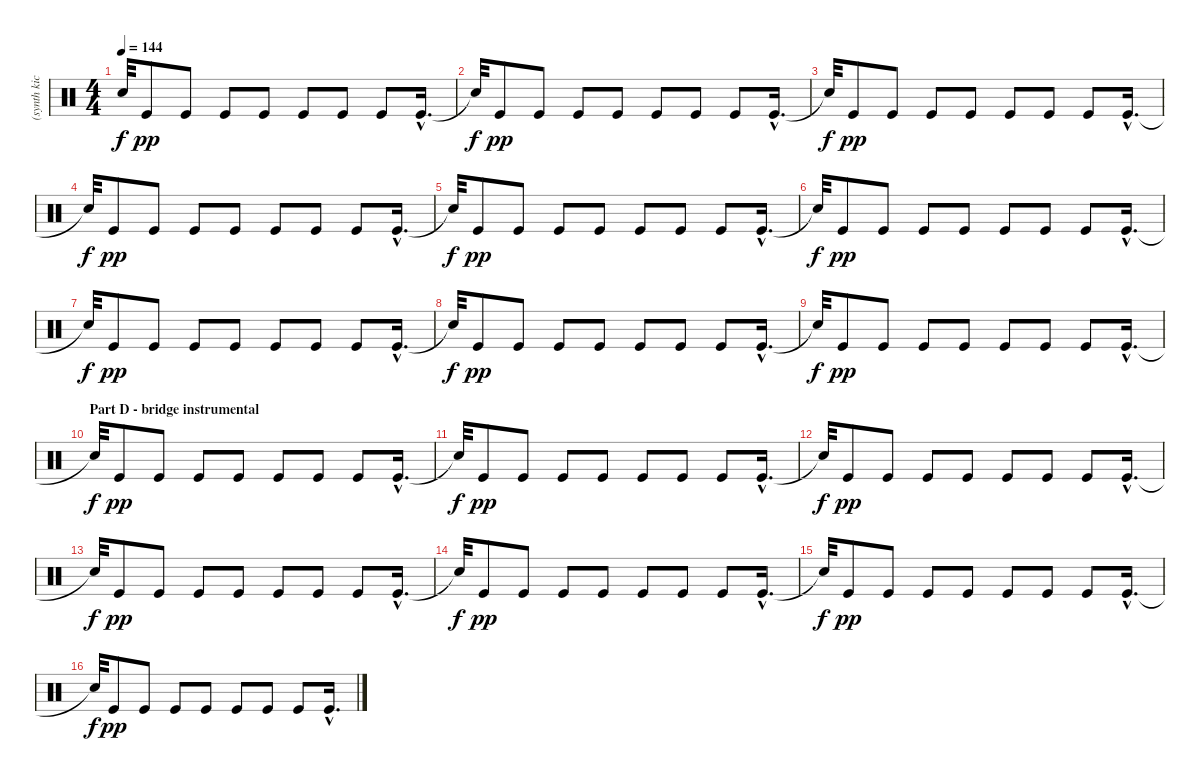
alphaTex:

\track ("(synth kick loop reverb)" "(synth kic") {instrument percussion}
\staff {score}
\articulation defaults
\ts (4 4)
\tempo 144
\clef neutral
\ks c "Snare (hit)"{t}.32{dy f} "Kick (hit)".8{dy pp} "Kick (hit)".8 "Kick (hit)".8 "Kick (hit)".8 "Kick (hit)".8 "Kick (hit)".8 "Kick (hit)".8 "Kick (hit)"{hac}.16{d}
|
"Snare (hit)"{t}.32{dy f} "Kick (hit)".8{dy pp} "Kick (hit)".8 "Kick (hit)".8 "Kick (hit)".8 "Kick (hit)".8 "Kick (hit)".8 "Kick (hit)".8 "Kick (hit)"{hac}.16{d} |
"Snare (hit)"{t}.32{dy f} "Kick (hit)".8{dy pp} "Kick (hit)".8 "Kick (hit)".8 "Kick (hit)".8 "Kick (hit)".8 "Kick (hit)".8 "Kick (hit)".8 "Kick (hit)"{hac}.16{d} |
"Snare (hit)"{t}.32{dy f} "Kick (hit)".8{dy pp} "Kick (hit)".8 "Kick (hit)".8 "Kick (hit)".8 "Kick (hit)".8 "Kick (hit)".8 "Kick (hit)".8 "Kick (hit)"{hac}.16{d} |
"Snare (hit)"{t}.32{dy f} "Kick (hit)".8{dy pp} "Kick (hit)".8 "Kick (hit)".8 "Kick (hit)".8 "Kick (hit)".8 "Kick (hit)".8 "Kick (hit)".8 "Kick (hit)"{hac}.16{d} |
"Snare (hit)"{t}.32{dy f} "Kick (hit)".8{dy pp} "Kick (hit)".8 "Kick (hit)".8 "Kick (hit)".8 "Kick (hit)".8 "Kick (hit)".8 "Kick (hit)".8 "Kick (hit)"{hac}.16{d} |
"Snare (hit)"{t}.32{dy f} "Kick (hit)".8{dy pp} "Kick (hit)".8 "Kick (hit)".8 "Kick (hit)".8 "Kick (hit)".8 "Kick (hit)".8 "Kick (hit)".8 "Kick (hit)"{hac}.16{d} |
"Snare (hit)"{t}.32{dy f} "Kick (hit)".8{dy pp} "Kick (hit)".8 "Kick (hit)".8 "Kick (hit)".8 "Kick (hit)".8 "Kick (hit)".8 "Kick (hit)".8 "Kick (hit)"{hac}.16{d} |
"Snare (hit)"{t}.32{dy f} "Kick (hit)".8{dy pp} "Kick (hit)".8 "Kick (hit)".8 "Kick (hit)".8 "Kick (hit)".8 "Kick (hit)".8 "Kick (hit)".8 "Kick (hit)"{hac}.16{d} |
\section ("" "Part D - bridge instrumental")
"Snare (hit)"{t}.32{dy f} "Kick (hit)".8{dy pp} "Kick (hit)".8 "Kick (hit)".8 "Kick (hit)".8 "Kick (hit)".8 "Kick (hit)".8 "Kick (hit)".8 "Kick (hit)"{hac}.16{d} |
"Snare (hit)"{t}.32{dy f} "Kick (hit)".8{dy pp} "Kick (hit)".8 "Kick (hit)".8 "Kick (hit)".8 "Kick (hit)".8 "Kick (hit)".8 "Kick (hit)".8 "Kick (hit)"{hac}.16{d} |
"Snare (hit)"{t}.32{dy f} "Kick (hit)".8{dy pp} "Kick (hit)".8 "Kick (hit)".8 "Kick (hit)".8 "Kick (hit)".8 "Kick (hit)".8 "Kick (hit)".8 "Kick (hit)"{hac}.16{d} |
"Snare (hit)"{t}.32{dy f} "Kick (hit)".8{dy pp} "Kick (hit)".8 "Kick (hit)".8 "Kick (hit)".8 "Kick (hit)".8 "Kick (hit)".8 "Kick (hit)".8 "Kick (hit)"{hac}.16{d} |
"Snare (hit)"{t}.32{dy f} "Kick (hit)".8{dy pp} "Kick (hit)".8 "Kick (hit)".8 "Kick (hit)".8 "Kick (hit)".8 "Kick (hit)".8 "Kick (hit)".8 "Kick (hit)"{hac}.16{d} |
"Snare (hit)"{t}.32{dy f} "Kick (hit)".8{dy pp} "Kick (hit)".8 "Kick (hit)".8 "Kick (hit)".8 "Kick (hit)".8 "Kick (hit)".8 "Kick (hit)".8 "Kick (hit)"{hac}.16{d} |
"Snare (hit)"{t}.32{dy f} "Kick (hit)".8{dy pp} "Kick (hit)".8 "Kick (hit)".8 "Kick (hit)".8 "Kick (hit)".8 "Kick (hit)".8 "Kick (hit)".8 "Kick (hit)"{hac}.16{d}
